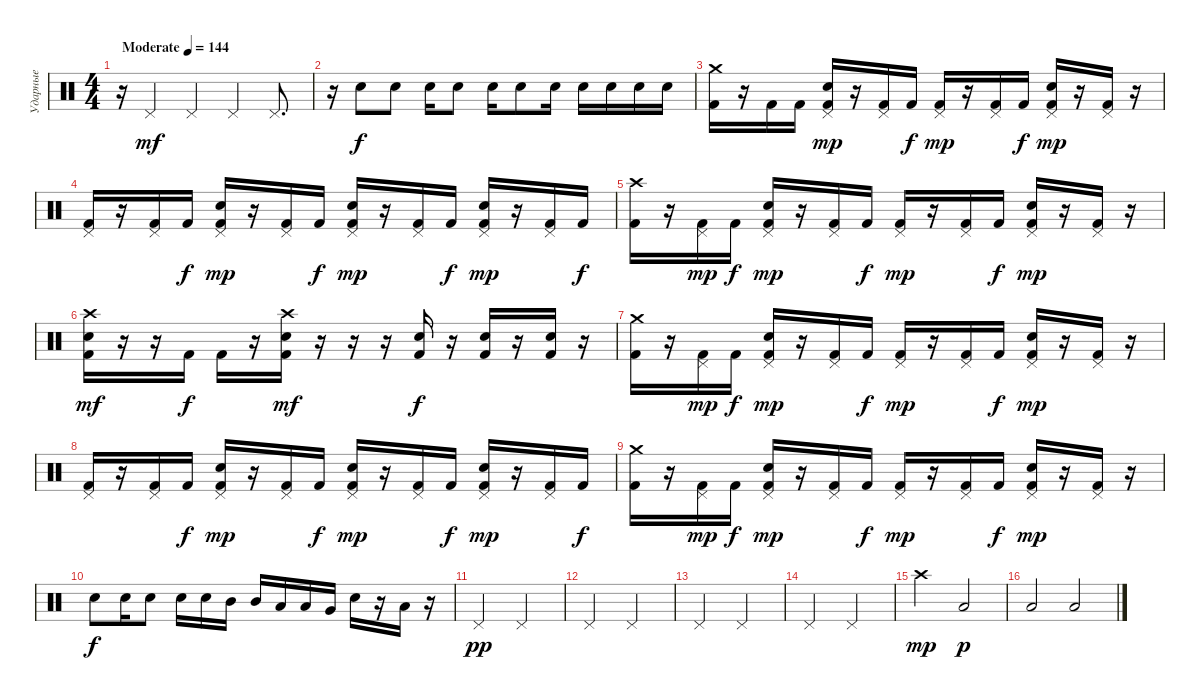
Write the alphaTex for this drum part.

\track ("Ударные" "Ударные") {instrument percussion}
\staff {score}
\articulation defaults
\ts (4 4)
\tempo (144 "Moderate")
\clef neutral
\ks c
r.16{dy mf} "Pedal Hi-Hat (hit)".4 "Pedal Hi-Hat (hit)".4 "Pedal Hi-Hat (hit)".4 "Pedal Hi-Hat (hit)".8{d} |
r.16 "Electric Snare (hit)".8{dy f} "Electric Snare (hit)".8 "Electric Snare (hit)".16 "Electric Snare (hit)".8 "Electric Snare (hit)".16 "Electric Snare (hit)".8 "Electric Snare (hit)".16 "Electric Snare (hit)".16 "Electric Snare (hit)".16 "Electric Snare (hit)".16 "Electric Snare (hit)".16 |
("Crash medium (hit)" "Kick (hit) 2").16 r.16 "Kick (hit) 2".16 "Kick (hit) 2".16 ("Pedal Hi-Hat (hit)" "Electric Snare (hit)" "Kick (hit) 2").16{dy mp} r.16 ("Pedal Hi-Hat (hit)" "Kick (hit) 2").16 "Kick (hit) 2".16{dy f} ("Pedal Hi-Hat (hit)" "Kick (hit) 2").16{dy mp} r.16 ("Pedal Hi-Hat (hit)" "Kick (hit) 2").16 "Kick (hit) 2".16{dy f} ("Pedal Hi-Hat (hit)" "Electric Snare (hit)" "Kick (hit) 2").16{dy mp} r.16 ("Pedal Hi-Hat (hit)" "Kick (hit) 2").16 r.16 |
("Pedal Hi-Hat (hit)" "Kick (hit) 2").16 r.16 ("Pedal Hi-Hat (hit)" "Kick (hit) 2").16 "Kick (hit) 2".16{dy f} ("Pedal Hi-Hat (hit)" "Electric Snare (hit)" "Kick (hit) 2").16{dy mp} r.16 ("Pedal Hi-Hat (hit)" "Kick (hit) 2").16 "Kick (hit) 2".16{dy f} ("Pedal Hi-Hat (hit)" "Electric Snare (hit)" "Kick (hit) 2").16{dy mp} r.16 ("Pedal Hi-Hat (hit)" "Kick (hit) 2").16 "Kick (hit) 2".16{dy f} ("Pedal Hi-Hat (hit)" "Electric Snare (hit)" "Kick (hit) 2").16{dy mp} r.16 ("Pedal Hi-Hat (hit)" "Kick (hit) 2").16 "Kick (hit) 2".16{dy f} |
("Crash high (hit)" "Kick (hit) 2").16 r.16 ("Pedal Hi-Hat (hit)" "Kick (hit) 2").16{dy mp} "Kick (hit) 2".16{dy f} ("Pedal Hi-Hat (hit)" "Electric Snare (hit)" "Kick (hit) 2").16{dy mp} r.16 ("Pedal Hi-Hat (hit)" "Kick (hit) 2").16 "Kick (hit) 2".16{dy f} ("Pedal Hi-Hat (hit)" "Kick (hit) 2").16{dy mp} r.16 ("Pedal Hi-Hat (hit)" "Kick (hit) 2").16 "Kick (hit) 2".16{dy f} ("Pedal Hi-Hat (hit)" "Electric Snare (hit)" "Kick (hit) 2").16{dy mp} r.16 ("Pedal Hi-Hat (hit)" "Kick (hit) 2").16 r.16 |
("Crash high (hit)" "Electric Snare (hit)" "Kick (hit) 2").16{dy mf} r.16 r.16 "Kick (hit) 2".16{dy f} "Kick (hit) 2".16 r.16 ("Crash high (hit)" "Electric Snare (hit)" "Kick (hit) 2").16{dy mf} r.16 r.16 r.16 ("Electric Snare (hit)" "Kick (hit) 2").16{dy f} r.16 ("Electric Snare (hit)" "Kick (hit) 2").16 r.16 ("Electric Snare (hit)" "Kick (hit) 2").16 r.16 |
("Crash medium (hit)" "Kick (hit) 2").16 r.16 ("Pedal Hi-Hat (hit)" "Kick (hit) 2").16{dy mp} "Kick (hit) 2".16{dy f} ("Pedal Hi-Hat (hit)" "Electric Snare (hit)" "Kick (hit) 2").16{dy mp} r.16 ("Pedal Hi-Hat (hit)" "Kick (hit) 2").16 "Kick (hit) 2".16{dy f} ("Pedal Hi-Hat (hit)" "Kick (hit) 2").16{dy mp} r.16 ("Pedal Hi-Hat (hit)" "Kick (hit) 2").16 "Kick (hit) 2".16{dy f} ("Pedal Hi-Hat (hit)" "Electric Snare (hit)" "Kick (hit) 2").16{dy mp} r.16 ("Pedal Hi-Hat (hit)" "Kick (hit) 2").16 r.16 |
("Pedal Hi-Hat (hit)" "Kick (hit) 2").16 r.16 ("Pedal Hi-Hat (hit)" "Kick (hit) 2").16 "Kick (hit) 2".16{dy f} ("Pedal Hi-Hat (hit)" "Electric Snare (hit)" "Kick (hit) 2").16{dy mp} r.16 ("Pedal Hi-Hat (hit)" "Kick (hit) 2").16 "Kick (hit) 2".16{dy f} ("Pedal Hi-Hat (hit)" "Electric Snare (hit)" "Kick (hit) 2").16{dy mp} r.16 ("Pedal Hi-Hat (hit)" "Kick (hit) 2").16 "Kick (hit) 2".16{dy f} ("Pedal Hi-Hat (hit)" "Electric Snare (hit)" "Kick (hit) 2").16{dy mp} r.16 ("Pedal Hi-Hat (hit)" "Kick (hit) 2").16 "Kick (hit) 2".16{dy f} |
("Crash medium (hit)" "Kick (hit) 2").16 r.16 ("Pedal Hi-Hat (hit)" "Kick (hit) 2").16{dy mp} "Kick (hit) 2".16{dy f} ("Pedal Hi-Hat (hit)" "Electric Snare (hit)" "Kick (hit) 2").16{dy mp} r.16 ("Pedal Hi-Hat (hit)" "Kick (hit) 2").16 "Kick (hit) 2".16{dy f} ("Pedal Hi-Hat (hit)" "Kick (hit) 2").16{dy mp} r.16 ("Pedal Hi-Hat (hit)" "Kick (hit) 2").16 "Kick (hit) 2".16{dy f} ("Pedal Hi-Hat (hit)" "Electric Snare (hit)" "Kick (hit) 2").16{dy mp} r.16 ("Pedal Hi-Hat (hit)" "Kick (hit) 2").16 r.16 |
"Electric Snare (hit)".8{dy f} "Electric Snare (hit)".16 "Electric Snare (hit)".8 "Electric Snare (hit)".16 "Electric Snare (hit)".16 "Mid Tom (hit)".16 "Mid Tom (hit)".16 "Low Tom (hit)".16 "Low Tom (hit)".16 "Very Low Tom (hit)".16 "Electric Snare (hit)".16 r.16 "Low Floor Tom (hit)".16 r.16 |
"Pedal Hi-Hat (hit)".2{dy pp} "Pedal Hi-Hat (hit)".2 |
"Pedal Hi-Hat (hit)".2 "Pedal Hi-Hat (hit)".2 |
"Pedal Hi-Hat (hit)".2 "Pedal Hi-Hat (hit)".2 |
"Pedal Hi-Hat (hit)".2 "Pedal Hi-Hat (hit)".2 |
"Crash high (hit)".2{dy mp} "Low Floor Tom (hit)".2{dy p} |
"Low Floor Tom (hit)".2 "Low Floor Tom (hit)".2
